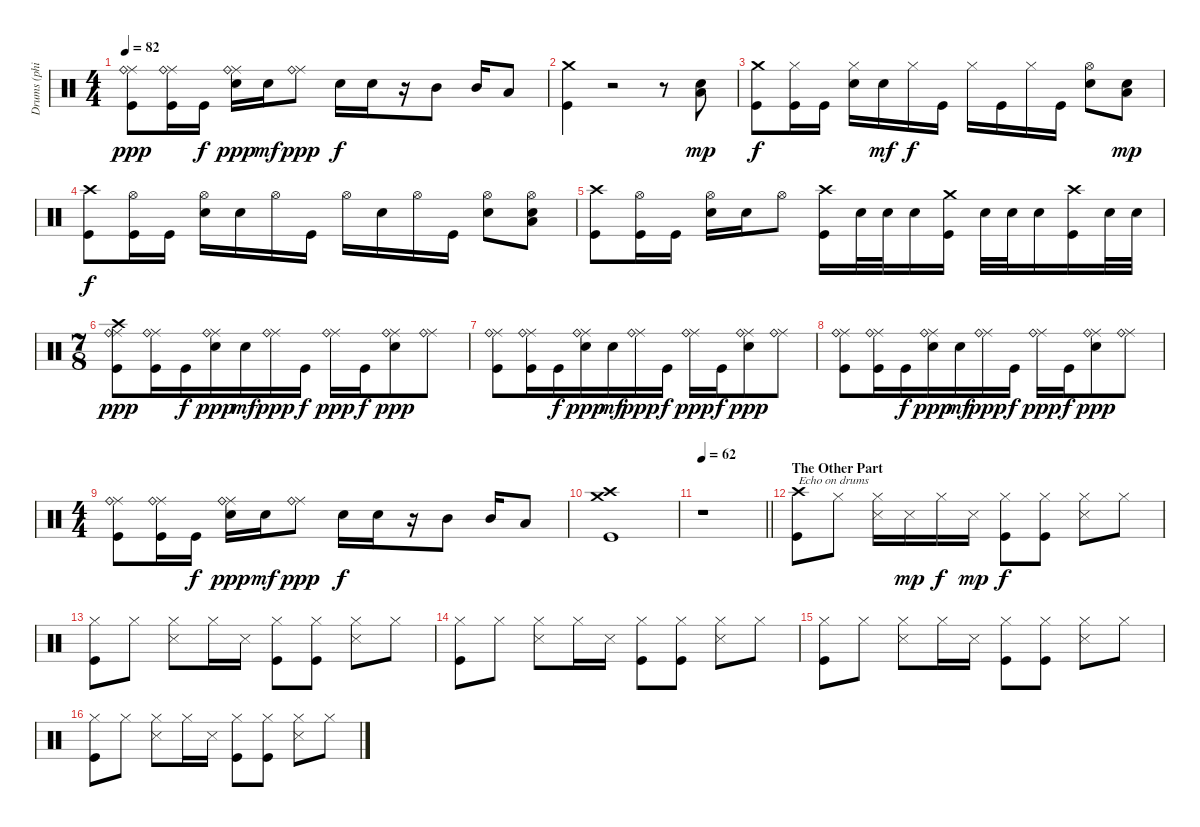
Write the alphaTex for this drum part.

\track ("Drums (phil)" "Drums (phi") {instrument percussion}
\staff {score}
\articulation defaults
\ts (4 4)
\tempo 82
\clef neutral
\ks c
("Ride (middle)" "Ride (bell)" "Kick (hit)").8{dy ppp} ("Ride (middle)" "Ride (bell)" "Kick (hit)").16 "Kick (hit)".16{dy f} ("Ride (middle)" "Ride (bell)" "Snare (hit) 2").16{dy ppp} "Snare (hit) 2".16{dy mf} ("Ride (middle)" "Ride (bell)").8{dy ppp} "Snare (hit) 2".16{dy f} "Snare (hit) 2".16 r.16 "Mid Tom (hit)".8 "Mid Tom (hit)".16 "Low Tom (hit)".8 |
("Crash medium (hit)" "Kick (hit)").4 r.2 r.8 ("Snare (hit) 2" "Low Tom (hit)").8{dy mp} |
("Crash medium (hit)" "Kick (hit)").8{dy f} ("Hi-Hat (closed)" "Kick (hit)").16 "Kick (hit)".16 ("Hi-Hat (closed)" "Snare (hit) 2").16 "Snare (hit) 2".16{dy mf} "Hi-Hat (closed)".16{dy f} "Kick (hit)".16 "Hi-Hat (closed)".16 "Kick (hit)".16 "Hi-Hat (closed)".16 "Kick (hit)".16 ("Hi-Hat (open)" "Snare (hit) 2").8 ("Snare (hit) 2" "Low Floor Tom (hit)").8{dy mp} |
("Crash high (hit)" "Kick (hit)").8{dy f} ("Hi-Hat (open)" "Kick (hit)").16 "Kick (hit)".16 ("Hi-Hat (open)" "Snare (hit) 2").16 "Snare (hit) 2".16 "Hi-Hat (open)".16 "Kick (hit)".16 "Hi-Hat (open)".16 "Snare (hit) 2".16 "Hi-Hat (open)".16 "Kick (hit)".16 ("Hi-Hat (open)" "Snare (hit) 2").8 ("Hi-Hat (open)" "Snare (hit) 2" "Low Floor Tom (hit)").8 |
("Crash high (hit)" "Kick (hit)").8 ("Hi-Hat (open)" "Kick (hit)").16 "Kick (hit)".16 ("Hi-Hat (open)" "Snare (hit) 2").16 "Snare (hit) 2".16 "Hi-Hat (open)".8 ("Crash high (hit)" "Kick (hit)").16 "Snare (hit) 2".32 "Snare (hit) 2".32 "Snare (hit) 2".16 ("Crash medium (hit)" "Kick (hit)").16 "Snare (hit) 2".32 "Snare (hit) 2".32 "Snare (hit) 2".16 ("Crash high (hit)" "Kick (hit)").16 "Snare (hit) 2".32 "Snare (hit) 2".32 |
\ts (7 8)
("Ride (middle)" "Ride (bell)" "Crash high (hit)" "Kick (hit)").8{dy ppp} ("Ride (middle)" "Ride (bell)" "Kick (hit)").16 "Kick (hit)".16{dy f} ("Ride (middle)" "Ride (bell)" "Snare (hit) 2").16{dy ppp} "Snare (hit) 2".16{dy mf} ("Ride (middle)" "Ride (bell)").16{dy ppp} "Kick (hit)".16{dy f} ("Ride (middle)" "Ride (bell)").16{dy ppp} "Kick (hit)".16{dy f} ("Ride (middle)" "Ride (bell)" "Snare (hit) 2").8{dy ppp} ("Ride (middle)" "Ride (bell)").8 |
("Ride (middle)" "Ride (bell)" "Kick (hit)").8 ("Ride (middle)" "Ride (bell)" "Kick (hit)").16 "Kick (hit)".16{dy f} ("Ride (middle)" "Ride (bell)" "Snare (hit) 2").16{dy ppp} "Snare (hit) 2".16{dy mf} ("Ride (middle)" "Ride (bell)").16{dy ppp} "Kick (hit)".16{dy f} ("Ride (middle)" "Ride (bell)").16{dy ppp} "Kick (hit)".16{dy f} ("Ride (middle)" "Ride (bell)" "Snare (hit) 2").8{dy ppp} ("Ride (middle)" "Ride (bell)").8 |
("Ride (middle)" "Ride (bell)" "Kick (hit)").8 ("Ride (middle)" "Ride (bell)" "Kick (hit)").16 "Kick (hit)".16{dy f} ("Ride (middle)" "Ride (bell)" "Snare (hit) 2").16{dy ppp} "Snare (hit) 2".16{dy mf} ("Ride (middle)" "Ride (bell)").16{dy ppp} "Kick (hit)".16{dy f} ("Ride (middle)" "Ride (bell)").16{dy ppp} "Kick (hit)".16{dy f} ("Ride (middle)" "Ride (bell)" "Snare (hit) 2").8{dy ppp} ("Ride (middle)" "Ride (bell)").8 |
\ts (4 4)
("Ride (middle)" "Ride (bell)" "Kick (hit)").8 ("Ride (middle)" "Ride (bell)" "Kick (hit)").16 "Kick (hit)".16{dy f} ("Ride (middle)" "Ride (bell)" "Snare (hit) 2").16{dy ppp} "Snare (hit) 2".16{dy mf} ("Ride (middle)" "Ride (bell)").8{dy ppp} "Snare (hit) 2".16{dy f} "Snare (hit) 2".16 r.16 "Mid Tom (hit)".8 "Mid Tom (hit)".16 "Low Tom (hit)".8 |
("Crash high (hit)" "Crash medium (hit)" "Kick (hit)").1 |
\tempo 62
\barLineRight lightlight
r.1 |
\section ("" "The Other Part")
("Crash high (hit)" "Kick (hit)").8{txt "Echo on drums"} "Hi-Hat (closed)".8 ("Hi-Hat (closed)" "Snare (side stick) 3").16 "Snare (side stick) 3".16{dy mp} "Hi-Hat (closed)".16{dy f} "Snare (side stick) 3".16{dy mp} ("Hi-Hat (closed)" "Kick (hit)").8{dy f} ("Hi-Hat (closed)" "Kick (hit)").8 ("Hi-Hat (closed)" "Snare (side stick) 3").8 "Hi-Hat (closed)".8 |
("Hi-Hat (closed)" "Kick (hit)").8 "Hi-Hat (closed)".8 ("Hi-Hat (closed)" "Snare (side stick) 3").8 "Hi-Hat (closed)".16 "Snare (side stick) 3".16 ("Hi-Hat (closed)" "Kick (hit)").8 ("Hi-Hat (closed)" "Kick (hit)").8 ("Hi-Hat (closed)" "Snare (side stick) 3").8 "Hi-Hat (closed)".8 |
("Hi-Hat (closed)" "Kick (hit)").8 "Hi-Hat (closed)".8 ("Hi-Hat (closed)" "Snare (side stick) 3").8 "Hi-Hat (closed)".16 "Snare (side stick) 3".16 ("Hi-Hat (closed)" "Kick (hit)").8 ("Hi-Hat (closed)" "Kick (hit)").8 ("Hi-Hat (closed)" "Snare (side stick) 3").8 "Hi-Hat (closed)".8 |
("Hi-Hat (closed)" "Kick (hit)").8 "Hi-Hat (closed)".8 ("Hi-Hat (closed)" "Snare (side stick) 3").8 "Hi-Hat (closed)".16 "Snare (side stick) 3".16 ("Hi-Hat (closed)" "Kick (hit)").8 ("Hi-Hat (closed)" "Kick (hit)").8 ("Hi-Hat (closed)" "Snare (side stick) 3").8 "Hi-Hat (closed)".8 |
("Hi-Hat (closed)" "Kick (hit)").8 "Hi-Hat (closed)".8 ("Hi-Hat (closed)" "Snare (side stick) 3").8 "Hi-Hat (closed)".16 "Snare (side stick) 3".16 ("Hi-Hat (closed)" "Kick (hit)").8 ("Hi-Hat (closed)" "Kick (hit)").8 ("Hi-Hat (closed)" "Snare (side stick) 3").8 "Hi-Hat (closed)".8
